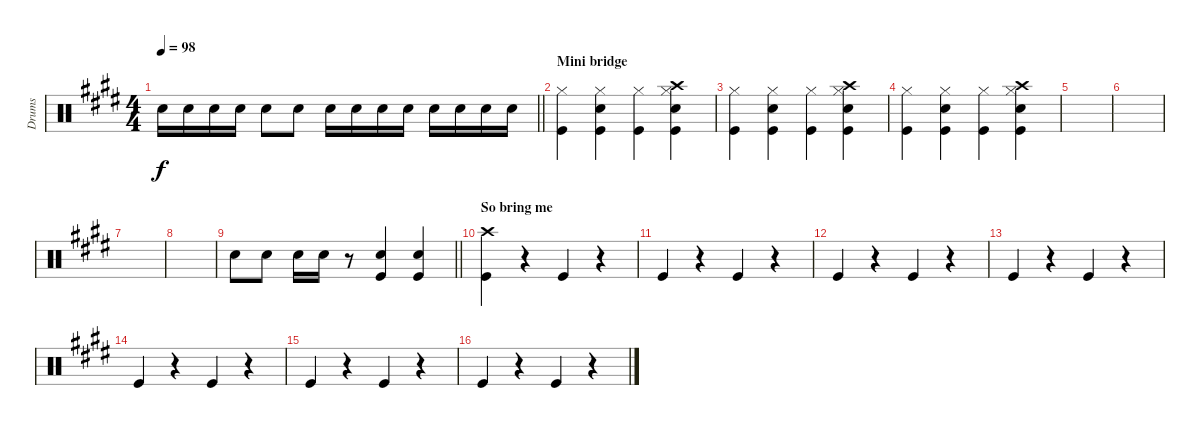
\track ("Drums" "Drums") {instrument percussion}
\staff {score}
\articulation defaults
\ts (4 4)
\tempo 98
\clef neutral
\barLineRight lightlight
\ks c#minor "Snare (hit) 2".16{dy f} "Snare (hit) 2".16 "Snare (hit) 2".16 "Snare (hit) 2".16 "Snare (hit) 2".8 "Snare (hit) 2".8 "Snare (hit) 2".16 "Snare (hit) 2".16 "Snare (hit) 2".16 "Snare (hit) 2".16 "Snare (hit) 2".16 "Snare (hit) 2".16 "Snare (hit) 2".16 "Snare (hit) 2".16
|
\section ("" "Mini bridge")
("Kick (hit)" "Hi-Hat (closed)").4 ("Kick (hit)" "Snare (hit) 2" "Hi-Hat (closed)").4 ("Kick (hit)" "Hi-Hat (closed)").4 ("Kick (hit)" "Snare (hit) 2" "Hi-Hat (closed)" "Crash high (hit)").4 |
("Kick (hit)" "Hi-Hat (closed)").4 ("Kick (hit)" "Snare (hit) 2" "Hi-Hat (closed)").4 ("Kick (hit)" "Hi-Hat (closed)").4 ("Kick (hit)" "Snare (hit) 2" "Hi-Hat (closed)" "Crash high (hit)").4 |
("Kick (hit)" "Hi-Hat (closed)").4 ("Kick (hit)" "Snare (hit) 2" "Hi-Hat (closed)").4 ("Kick (hit)" "Hi-Hat (closed)").4 ("Kick (hit)" "Snare (hit) 2" "Hi-Hat (closed)" "Crash high (hit)").4 |
|
|
|
|
\barLineRight lightlight "Snare (hit) 2".8 "Snare (hit) 2".8 "Snare (hit) 2".16 "Snare (hit) 2".16
r.8 ("Kick (hit)" "Snare (hit) 2").4 ("Kick (hit)" "Snare (hit) 2").4 |
\section ("" "So bring me")
("Kick (hit)" "Crash high (hit)").4 r.4 "Kick (hit)".4 r.4 |
"Kick (hit)".4 r.4 "Kick (hit)".4 r.4 |
"Kick (hit)".4 r.4 "Kick (hit)".4 r.4 |
"Kick (hit)".4 r.4 "Kick (hit)".4 r.4 |
"Kick (hit)".4 r.4 "Kick (hit)".4 r.4 |
"Kick (hit)".4 r.4 "Kick (hit)".4 r.4 |
"Kick (hit)".4 r.4 "Kick (hit)".4 r.4
